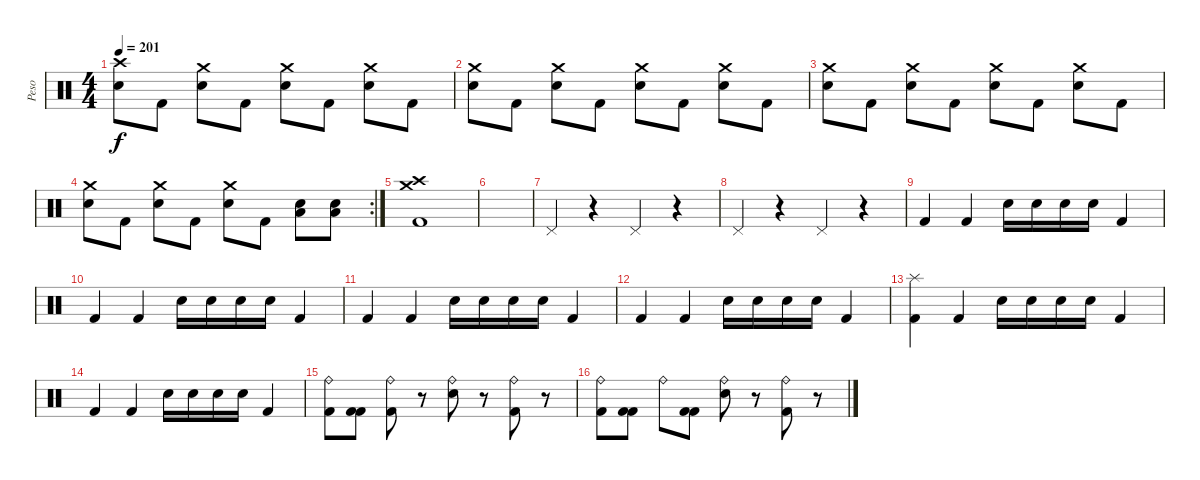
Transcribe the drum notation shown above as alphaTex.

\track ("Peso" "Peso") {instrument percussion}
\staff {score}
\articulation defaults
\ts (4 4)
\tempo 201
\clef neutral
\ks c
("Crash high (hit)" "Snare (hit) 2").8{dy f} "Kick (hit) 2".8 ("Crash medium (hit)" "Snare (hit) 2").8 "Kick (hit) 2".8 ("Crash medium (hit)" "Snare (hit) 2").8 "Kick (hit) 2".8 ("Crash medium (hit)" "Snare (hit) 2").8 "Kick (hit) 2".8 |
("Crash medium (hit)" "Snare (hit) 2").8 "Kick (hit) 2".8 ("Crash medium (hit)" "Snare (hit) 2").8 "Kick (hit) 2".8 ("Crash medium (hit)" "Snare (hit) 2").8 "Kick (hit) 2".8 ("Crash medium (hit)" "Snare (hit) 2").8 "Kick (hit) 2".8 |
("Crash medium (hit)" "Snare (hit) 2").8 "Kick (hit) 2".8 ("Crash medium (hit)" "Snare (hit) 2").8 "Kick (hit) 2".8 ("Crash medium (hit)" "Snare (hit) 2").8 "Kick (hit) 2".8 ("Crash medium (hit)" "Snare (hit) 2").8 "Kick (hit) 2".8 |
\rc 2
("Crash medium (hit)" "Snare (hit) 2").8 "Kick (hit) 2".8 ("Crash medium (hit)" "Snare (hit) 2").8 "Kick (hit) 2".8 ("Crash medium (hit)" "Snare (hit) 2").8 "Kick (hit) 2".8 ("Low Floor Tom (hit)" "Snare (hit) 2").8 ("Low Floor Tom (hit)" "Snare (hit) 2").8 |
("Crash high (hit)" "Crash medium (hit)" "Kick (hit) 2").1 |
|
"Pedal Hi-Hat (hit)".4 r.4 "Pedal Hi-Hat (hit)".4 r.4 |
"Pedal Hi-Hat (hit)".4 r.4 "Pedal Hi-Hat (hit)".4 r.4 |
"Kick (hit) 2".4 "Kick (hit) 2".4 "Snare (hit) 2".16 "Snare (hit) 2".16 "Snare (hit) 2".16 "Snare (hit) 2".16 "Kick (hit) 2".4 |
"Kick (hit) 2".4 "Kick (hit) 2".4 "Snare (hit) 2".16 "Snare (hit) 2".16 "Snare (hit) 2".16 "Snare (hit) 2".16 "Kick (hit) 2".4 |
"Kick (hit) 2".4 "Kick (hit) 2".4 "Snare (hit) 2".16 "Snare (hit) 2".16 "Snare (hit) 2".16 "Snare (hit) 2".16 "Kick (hit) 2".4 |
"Kick (hit) 2".4 "Kick (hit) 2".4 "Snare (hit) 2".16 "Snare (hit) 2".16 "Snare (hit) 2".16 "Snare (hit) 2".16 "Kick (hit) 2".4 |
("Splash (hit)" "Kick (hit) 2").4 "Kick (hit) 2".4 "Snare (hit) 2".16 "Snare (hit) 2".16 "Snare (hit) 2".16 "Snare (hit) 2".16 "Kick (hit) 2".4 |
"Kick (hit) 2".4 "Kick (hit) 2".4 "Snare (hit) 2".16 "Snare (hit) 2".16 "Snare (hit) 2".16 "Snare (hit) 2".16 "Kick (hit) 2".4 |
("Ride (bell)" "Kick (hit) 2").8 ("Kick (hit) 2" "Kick (hit) 2").8 ("Ride (bell)" "Kick (hit) 2").8 r.8 ("Ride (bell)" "Snare (hit) 2").8 r.8 ("Ride (bell)" "Kick (hit) 2").8 r.8 |
("Ride (bell)" "Kick (hit) 2").8 ("Kick (hit) 2" "Kick (hit) 2").8 "Ride (bell)".8 ("Kick (hit) 2" "Kick (hit) 2").8 ("Ride (bell)" "Snare (hit) 2").8 r.8 ("Ride (bell)" "Kick (hit) 2").8 r.8
